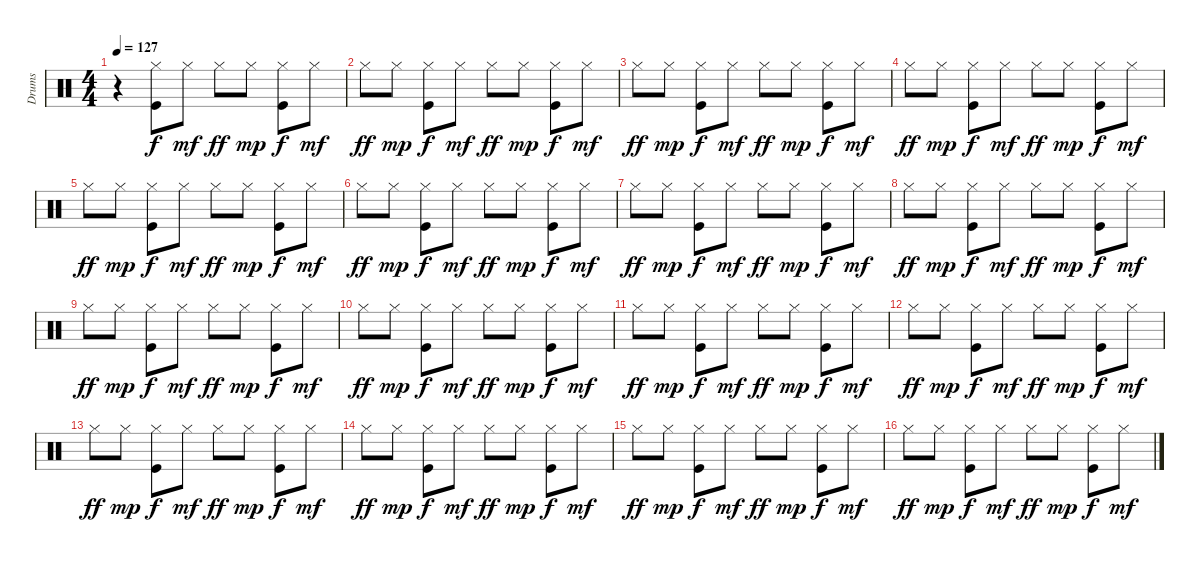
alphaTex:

\track ("Drums" "Drums") {instrument percussion}
\staff {score}
\articulation defaults
\ts (4 4)
\tempo 127
\clef neutral
\ks c
r.4{dy f} ("Hi-Hat (closed)" "Kick (hit)").8 "Hi-Hat (closed)".8{dy mf} "Hi-Hat (closed)".8{dy ff} "Hi-Hat (closed)".8{dy mp} ("Hi-Hat (closed)" "Kick (hit)").8{dy f} "Hi-Hat (closed)".8{dy mf} |
"Hi-Hat (closed)".8{dy ff} "Hi-Hat (closed)".8{dy mp} ("Hi-Hat (closed)" "Kick (hit)").8{dy f} "Hi-Hat (closed)".8{dy mf} "Hi-Hat (closed)".8{dy ff} "Hi-Hat (closed)".8{dy mp} ("Hi-Hat (closed)" "Kick (hit)").8{dy f} "Hi-Hat (closed)".8{dy mf} |
"Hi-Hat (closed)".8{dy ff} "Hi-Hat (closed)".8{dy mp} ("Hi-Hat (closed)" "Kick (hit)").8{dy f} "Hi-Hat (closed)".8{dy mf} "Hi-Hat (closed)".8{dy ff} "Hi-Hat (closed)".8{dy mp} ("Hi-Hat (closed)" "Kick (hit)").8{dy f} "Hi-Hat (closed)".8{dy mf} |
"Hi-Hat (closed)".8{dy ff} "Hi-Hat (closed)".8{dy mp} ("Hi-Hat (closed)" "Kick (hit)").8{dy f} "Hi-Hat (closed)".8{dy mf} "Hi-Hat (closed)".8{dy ff} "Hi-Hat (closed)".8{dy mp} ("Hi-Hat (closed)" "Kick (hit)").8{dy f} "Hi-Hat (closed)".8{dy mf} |
"Hi-Hat (closed)".8{dy ff} "Hi-Hat (closed)".8{dy mp} ("Hi-Hat (closed)" "Kick (hit)").8{dy f} "Hi-Hat (closed)".8{dy mf} "Hi-Hat (closed)".8{dy ff} "Hi-Hat (closed)".8{dy mp} ("Hi-Hat (closed)" "Kick (hit)").8{dy f} "Hi-Hat (closed)".8{dy mf} |
"Hi-Hat (closed)".8{dy ff} "Hi-Hat (closed)".8{dy mp} ("Hi-Hat (closed)" "Kick (hit)").8{dy f} "Hi-Hat (closed)".8{dy mf} "Hi-Hat (closed)".8{dy ff} "Hi-Hat (closed)".8{dy mp} ("Hi-Hat (closed)" "Kick (hit)").8{dy f} "Hi-Hat (closed)".8{dy mf} |
"Hi-Hat (closed)".8{dy ff} "Hi-Hat (closed)".8{dy mp} ("Hi-Hat (closed)" "Kick (hit)").8{dy f} "Hi-Hat (closed)".8{dy mf} "Hi-Hat (closed)".8{dy ff} "Hi-Hat (closed)".8{dy mp} ("Hi-Hat (closed)" "Kick (hit)").8{dy f} "Hi-Hat (closed)".8{dy mf} |
"Hi-Hat (closed)".8{dy ff} "Hi-Hat (closed)".8{dy mp} ("Hi-Hat (closed)" "Kick (hit)").8{dy f} "Hi-Hat (closed)".8{dy mf} "Hi-Hat (closed)".8{dy ff} "Hi-Hat (closed)".8{dy mp} ("Hi-Hat (closed)" "Kick (hit)").8{dy f} "Hi-Hat (closed)".8{dy mf} |
"Hi-Hat (closed)".8{dy ff} "Hi-Hat (closed)".8{dy mp} ("Hi-Hat (closed)" "Kick (hit)").8{dy f} "Hi-Hat (closed)".8{dy mf} "Hi-Hat (closed)".8{dy ff} "Hi-Hat (closed)".8{dy mp} ("Hi-Hat (closed)" "Kick (hit)").8{dy f} "Hi-Hat (closed)".8{dy mf} |
"Hi-Hat (closed)".8{dy ff} "Hi-Hat (closed)".8{dy mp} ("Hi-Hat (closed)" "Kick (hit)").8{dy f} "Hi-Hat (closed)".8{dy mf} "Hi-Hat (closed)".8{dy ff} "Hi-Hat (closed)".8{dy mp} ("Hi-Hat (closed)" "Kick (hit)").8{dy f} "Hi-Hat (closed)".8{dy mf} |
"Hi-Hat (closed)".8{dy ff} "Hi-Hat (closed)".8{dy mp} ("Hi-Hat (closed)" "Kick (hit)").8{dy f} "Hi-Hat (closed)".8{dy mf} "Hi-Hat (closed)".8{dy ff} "Hi-Hat (closed)".8{dy mp} ("Hi-Hat (closed)" "Kick (hit)").8{dy f} "Hi-Hat (closed)".8{dy mf} |
"Hi-Hat (closed)".8{dy ff} "Hi-Hat (closed)".8{dy mp} ("Hi-Hat (closed)" "Kick (hit)").8{dy f} "Hi-Hat (closed)".8{dy mf} "Hi-Hat (closed)".8{dy ff} "Hi-Hat (closed)".8{dy mp} ("Hi-Hat (closed)" "Kick (hit)").8{dy f} "Hi-Hat (closed)".8{dy mf} |
"Hi-Hat (closed)".8{dy ff} "Hi-Hat (closed)".8{dy mp} ("Hi-Hat (closed)" "Kick (hit)").8{dy f} "Hi-Hat (closed)".8{dy mf} "Hi-Hat (closed)".8{dy ff} "Hi-Hat (closed)".8{dy mp} ("Hi-Hat (closed)" "Kick (hit)").8{dy f} "Hi-Hat (closed)".8{dy mf} |
"Hi-Hat (closed)".8{dy ff} "Hi-Hat (closed)".8{dy mp} ("Hi-Hat (closed)" "Kick (hit)").8{dy f} "Hi-Hat (closed)".8{dy mf} "Hi-Hat (closed)".8{dy ff} "Hi-Hat (closed)".8{dy mp} ("Hi-Hat (closed)" "Kick (hit)").8{dy f} "Hi-Hat (closed)".8{dy mf} |
"Hi-Hat (closed)".8{dy ff} "Hi-Hat (closed)".8{dy mp} ("Hi-Hat (closed)" "Kick (hit)").8{dy f} "Hi-Hat (closed)".8{dy mf} "Hi-Hat (closed)".8{dy ff} "Hi-Hat (closed)".8{dy mp} ("Hi-Hat (closed)" "Kick (hit)").8{dy f} "Hi-Hat (closed)".8{dy mf} |
"Hi-Hat (closed)".8{dy ff} "Hi-Hat (closed)".8{dy mp} ("Hi-Hat (closed)" "Kick (hit)").8{dy f} "Hi-Hat (closed)".8{dy mf} "Hi-Hat (closed)".8{dy ff} "Hi-Hat (closed)".8{dy mp} ("Hi-Hat (closed)" "Kick (hit)").8{dy f} "Hi-Hat (closed)".8{dy mf}
